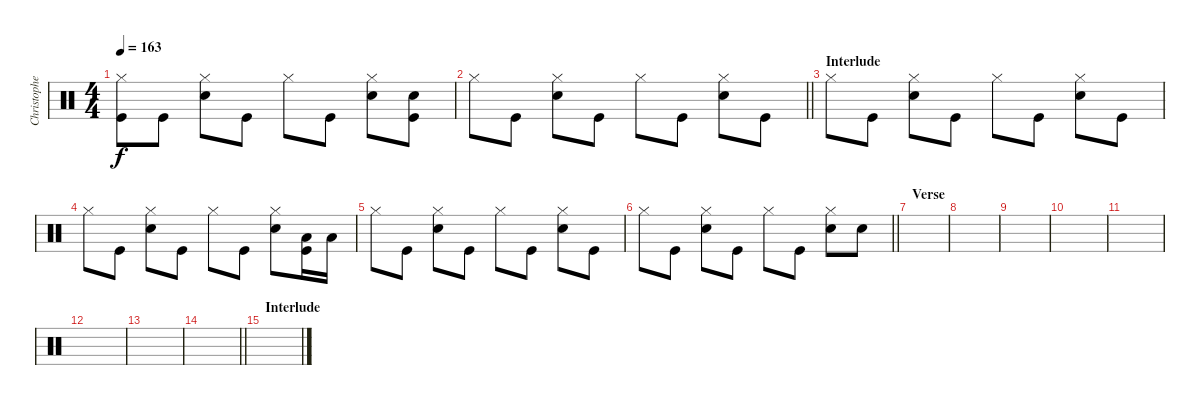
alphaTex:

\track ("Christopher - Drums" "Christophe") {instrument percussion}
\staff {score}
\articulation defaults
\ts (4 4)
\tempo 163
\clef neutral
\ks c
("Hi-Hat (closed)" "Kick (hit)").8{dy f} "Kick (hit)".8 ("Hi-Hat (closed)" "Snare (hit) 2").8 "Kick (hit)".8 "Hi-Hat (closed)".8 "Kick (hit)".8 ("Hi-Hat (closed)" "Snare (hit) 2").8 ("Snare (hit) 2" "Kick (hit)").8 |
\barLineRight lightlight "Hi-Hat (closed)".8 "Kick (hit)".8
("Hi-Hat (closed)" "Snare (hit) 2").8 "Kick (hit)".8 "Hi-Hat (closed)".8 "Kick (hit)".8 ("Hi-Hat (closed)" "Snare (hit) 2").8 "Kick (hit)".8 |
\section ("" "Interlude")
"Hi-Hat (closed)".8 "Kick (hit)".8 ("Hi-Hat (closed)" "Snare (hit) 2").8 "Kick (hit)".8 "Hi-Hat (closed)".8 "Kick (hit)".8 ("Hi-Hat (closed)" "Snare (hit) 2").8 "Kick (hit)".8 |
"Hi-Hat (closed)".8 "Kick (hit)".8 ("Hi-Hat (closed)" "Snare (hit) 2").8 "Kick (hit)".8 "Hi-Hat (closed)".8 "Kick (hit)".8 ("Hi-Hat (closed)" "Snare (hit) 2").8 ("Low Tom (hit)" "Kick (hit)").16 "Low Tom (hit)".16 |
"Hi-Hat (closed)".8 "Kick (hit)".8 ("Hi-Hat (closed)" "Snare (hit) 2").8 "Kick (hit)".8 "Hi-Hat (closed)".8 "Kick (hit)".8 ("Hi-Hat (closed)" "Snare (hit) 2").8 "Kick (hit)".8 |
\barLineRight lightlight "Hi-Hat (closed)".8 "Kick (hit)".8
("Hi-Hat (closed)" "Snare (hit) 2").8 "Kick (hit)".8 "Hi-Hat (closed)".8 "Kick (hit)".8 ("Hi-Hat (closed)" "Snare (hit) 2").8 "Snare (hit) 2".8 |
\section ("" "Verse")
|
|
|
|
|
|
|
\barLineRight lightlight
|
\section ("" "Interlude")
